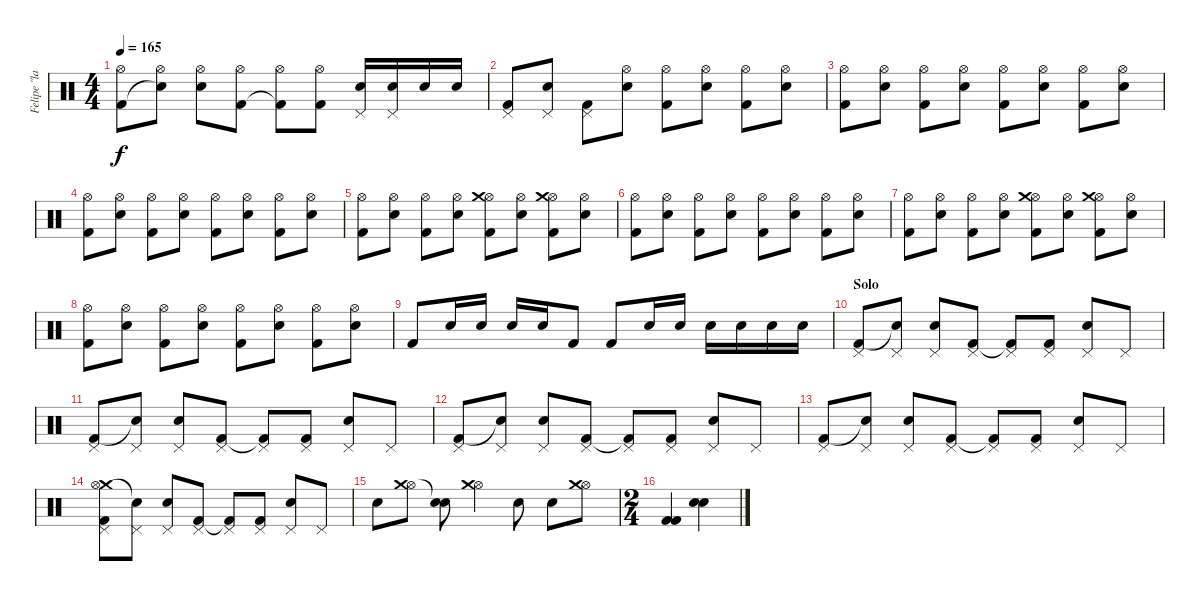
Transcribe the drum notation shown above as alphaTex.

\track ("Felipe \"la caponera\" Muñoz" "Felipe \"la") {instrument percussion}
\staff {score}
\articulation defaults
\ts (4 4)
\tempo 165
\clef neutral
\ks c
("Hi-Hat (open)" "Kick (hit) 2").8{dy f} ("Hi-Hat (open)" "Snare (hit)"{t}).8 ("Hi-Hat (open)" "Electric Snare (hit)").8 ("Hi-Hat (open)" "Kick (hit) 2").8 ("Hi-Hat (open)" "Kick (hit) 2"{t}).8 ("Hi-Hat (open)" "Kick (hit) 2").8 ("Pedal Hi-Hat (hit)" "Electric Snare (hit)").16 ("Pedal Hi-Hat (hit)" "Electric Snare (hit)").16 "Electric Snare (hit)".16 "Electric Snare (hit)".16 |
("Pedal Hi-Hat (hit)" "Kick (hit) 2").8 ("Pedal Hi-Hat (hit)" "Electric Snare (hit)").8 ("Pedal Hi-Hat (hit)" "Kick (hit) 2").8 ("Hi-Hat (open)" "Electric Snare (hit)").8 ("Hi-Hat (open)" "Kick (hit) 2").8 ("Hi-Hat (open)" "Electric Snare (hit)").8 ("Hi-Hat (open)" "Kick (hit) 2").8 ("Hi-Hat (open)" "Electric Snare (hit)").8 |
("Hi-Hat (open)" "Kick (hit) 2").8 ("Hi-Hat (open)" "Electric Snare (hit)").8 ("Hi-Hat (open)" "Kick (hit) 2").8 ("Hi-Hat (open)" "Electric Snare (hit)").8 ("Hi-Hat (open)" "Kick (hit) 2").8 ("Hi-Hat (open)" "Electric Snare (hit)").8 ("Hi-Hat (open)" "Kick (hit) 2").8 ("Hi-Hat (open)" "Electric Snare (hit)").8 |
("Hi-Hat (open)" "Kick (hit) 2").8 ("Hi-Hat (open)" "Electric Snare (hit)").8 ("Hi-Hat (open)" "Kick (hit) 2").8 ("Hi-Hat (open)" "Electric Snare (hit)").8 ("Hi-Hat (open)" "Kick (hit) 2").8 ("Hi-Hat (open)" "Electric Snare (hit)").8 ("Hi-Hat (open)" "Kick (hit) 2").8 ("Hi-Hat (open)" "Electric Snare (hit)").8 |
("Hi-Hat (open)" "Kick (hit) 2").8 ("Hi-Hat (open)" "Electric Snare (hit)").8 ("Hi-Hat (open)" "Kick (hit) 2").8 ("Hi-Hat (open)" "Electric Snare (hit)").8 ("Hi-Hat (open)" "Crash medium (hit)" "Kick (hit) 2").8 ("Hi-Hat (open)" "Electric Snare (hit)").8 ("Hi-Hat (open)" "Crash medium (hit)" "Kick (hit) 2").8 ("Hi-Hat (open)" "Electric Snare (hit)").8 |
("Hi-Hat (open)" "Kick (hit) 2").8 ("Hi-Hat (open)" "Electric Snare (hit)").8 ("Hi-Hat (open)" "Kick (hit) 2").8 ("Hi-Hat (open)" "Electric Snare (hit)").8 ("Hi-Hat (open)" "Kick (hit) 2").8 ("Hi-Hat (open)" "Electric Snare (hit)").8 ("Hi-Hat (open)" "Kick (hit) 2").8 ("Hi-Hat (open)" "Electric Snare (hit)").8 |
("Hi-Hat (open)" "Kick (hit) 2").8 ("Hi-Hat (open)" "Electric Snare (hit)").8 ("Hi-Hat (open)" "Kick (hit) 2").8 ("Hi-Hat (open)" "Electric Snare (hit)").8 ("Hi-Hat (open)" "Crash medium (hit)" "Kick (hit) 2").8 ("Hi-Hat (open)" "Electric Snare (hit)").8 ("Hi-Hat (open)" "Crash medium (hit)" "Kick (hit) 2").8 ("Hi-Hat (open)" "Electric Snare (hit)").8 |
("Hi-Hat (open)" "Kick (hit) 2").8 ("Hi-Hat (open)" "Electric Snare (hit)").8 ("Hi-Hat (open)" "Kick (hit) 2").8 ("Hi-Hat (open)" "Electric Snare (hit)").8 ("Hi-Hat (open)" "Kick (hit) 2").8 ("Hi-Hat (open)" "Electric Snare (hit)").8 ("Hi-Hat (open)" "Kick (hit) 2").8 ("Hi-Hat (open)" "Electric Snare (hit)").8 |
"Kick (hit) 2".8 "Electric Snare (hit)".16 "Electric Snare (hit)".16 "Electric Snare (hit)".16 "Electric Snare (hit)".16 "Kick (hit) 2".8 "Kick (hit) 2".8 "Electric Snare (hit)".16 "Electric Snare (hit)".16 "Electric Snare (hit)".16 "Electric Snare (hit)".16 "Electric Snare (hit)".16 "Electric Snare (hit)".16 |
\section ("" "Solo")
("Pedal Hi-Hat (hit)" "Kick (hit) 2").8 ("Pedal Hi-Hat (hit)" "Snare (hit)"{t}).8 ("Pedal Hi-Hat (hit)" "Electric Snare (hit)").8 ("Pedal Hi-Hat (hit)" "Kick (hit) 2").8 ("Pedal Hi-Hat (hit)" "Kick (hit) 2"{t}).8 ("Pedal Hi-Hat (hit)" "Kick (hit) 2").8 ("Pedal Hi-Hat (hit)" "Electric Snare (hit)").8 "Pedal Hi-Hat (hit)".8 |
("Pedal Hi-Hat (hit)" "Kick (hit) 2").8 ("Pedal Hi-Hat (hit)" "Snare (hit)"{t}).8 ("Pedal Hi-Hat (hit)" "Electric Snare (hit)").8 ("Pedal Hi-Hat (hit)" "Kick (hit) 2").8 ("Pedal Hi-Hat (hit)" "Kick (hit) 2"{t}).8 ("Pedal Hi-Hat (hit)" "Kick (hit) 2").8 ("Pedal Hi-Hat (hit)" "Electric Snare (hit)").8 "Pedal Hi-Hat (hit)".8 |
("Pedal Hi-Hat (hit)" "Kick (hit) 2").8 ("Pedal Hi-Hat (hit)" "Snare (hit)"{t}).8 ("Pedal Hi-Hat (hit)" "Electric Snare (hit)").8 ("Pedal Hi-Hat (hit)" "Kick (hit) 2").8 ("Pedal Hi-Hat (hit)" "Kick (hit) 2"{t}).8 ("Pedal Hi-Hat (hit)" "Kick (hit) 2").8 ("Pedal Hi-Hat (hit)" "Electric Snare (hit)").8 "Pedal Hi-Hat (hit)".8 |
("Pedal Hi-Hat (hit)" "Kick (hit) 2").8 ("Pedal Hi-Hat (hit)" "Snare (hit)"{t}).8 ("Pedal Hi-Hat (hit)" "Electric Snare (hit)").8 ("Pedal Hi-Hat (hit)" "Kick (hit) 2").8 ("Pedal Hi-Hat (hit)" "Kick (hit) 2"{t}).8 ("Pedal Hi-Hat (hit)" "Kick (hit) 2").8 ("Pedal Hi-Hat (hit)" "Electric Snare (hit)").8 "Pedal Hi-Hat (hit)".8 |
("Pedal Hi-Hat (hit)" "Crash medium (hit)" "Hi-Hat (open)" "Kick (hit) 2").8 ("Pedal Hi-Hat (hit)" "Snare (hit)"{t}).8 ("Pedal Hi-Hat (hit)" "Electric Snare (hit)").8 ("Pedal Hi-Hat (hit)" "Kick (hit) 2").8 ("Pedal Hi-Hat (hit)" "Kick (hit) 2"{t}).8 ("Pedal Hi-Hat (hit)" "Kick (hit) 2").8 ("Pedal Hi-Hat (hit)" "Electric Snare (hit)").8 "Pedal Hi-Hat (hit)".8 |
"Electric Snare (hit)".8 ("Hi-Hat (open)" "Crash medium (hit)").8 ("Snare (hit)"{t} "Electric Snare (hit)").8 ("Hi-Hat (open)" "Crash medium (hit)").4 "Electric Snare (hit)".8 "Electric Snare (hit)".8 ("Hi-Hat (open)" "Crash medium (hit)").8 |
\ts (2 4)
("Kick (hit) 2" "Kick (hit) 2").4 ("Electric Snare (hit)" "Electric Snare (hit)").4
